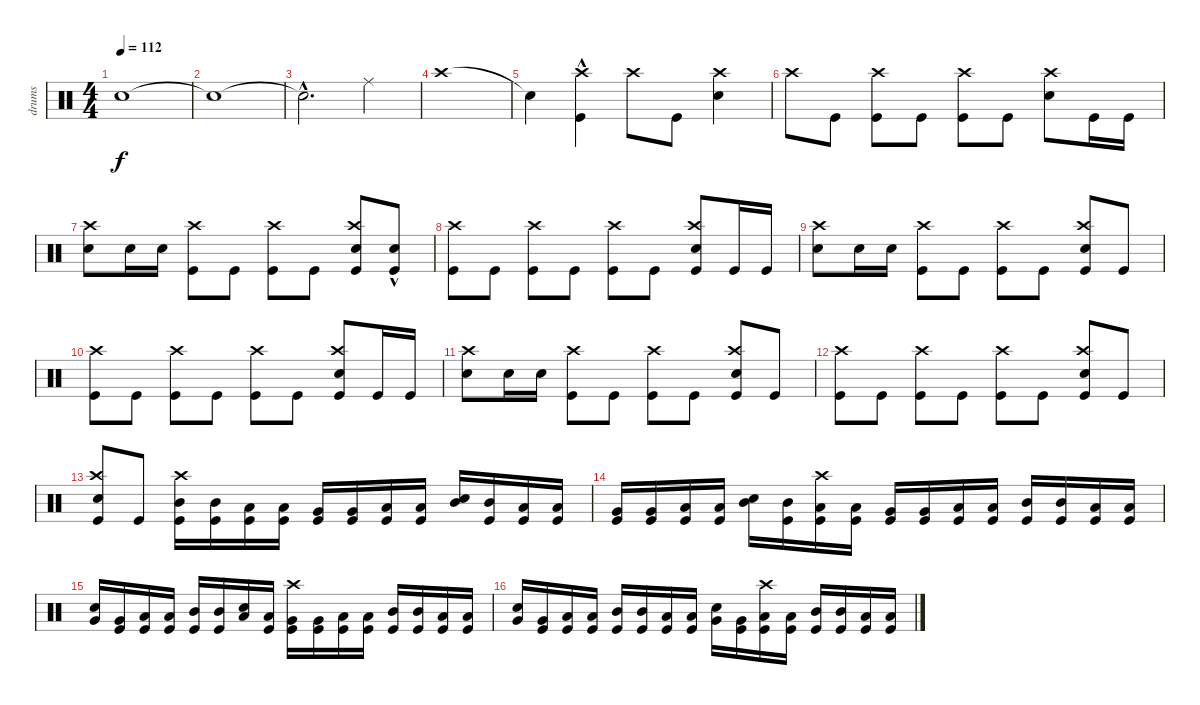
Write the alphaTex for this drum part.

\track ("drums" "drums") {instrument percussion}
\staff {score}
\articulation defaults
\ts (4 4)
\tempo 112
\clef neutral
\ks c "Snare (hit)"{t}.1{dy f}
|
"Snare (hit)"{t}.1 |
"Snare (hit)"{hac t}.2{d} "Ride (middle)".4 |
"Crash high (hit)".1 |
"Snare (hit)"{t}.4 ("Kick (hit)"{hac} "Crash high (hit)").4 "Crash high (hit)".8 "Kick (hit)".8 ("Snare (hit) 2" "Crash high (hit)").4 |
"Crash high (hit)".8 "Kick (hit)".8 ("Kick (hit)" "Crash high (hit)").8 "Kick (hit)".8 ("Kick (hit)" "Crash high (hit)").8 "Kick (hit)".8 ("Snare (hit) 2" "Crash high (hit)").8 "Kick (hit)".16 "Kick (hit)".16 |
("Snare (hit) 2" "Crash high (hit)").8 "Snare (hit) 2".16 "Snare (hit) 2".16 ("Kick (hit)" "Crash high (hit)").8 "Kick (hit)".8 ("Kick (hit)" "Crash high (hit)").8 "Kick (hit)".8 ("Kick (hit)" "Snare (hit) 2" "Crash high (hit)").8 ("Kick (hit)" "Snare (hit) 2"{hac}).8 |
("Kick (hit)" "Crash high (hit)").8 "Kick (hit)".8 ("Kick (hit)" "Crash high (hit)").8 "Kick (hit)".8 ("Kick (hit)" "Crash high (hit)").8 "Kick (hit)".8 ("Kick (hit)" "Snare (hit) 2" "Crash high (hit)").8 "Kick (hit)".16 "Kick (hit)".16 |
("Snare (hit) 2" "Crash high (hit)").8 "Snare (hit) 2".16 "Snare (hit) 2".16 ("Kick (hit)" "Crash high (hit)").8 "Kick (hit)".8 ("Kick (hit)" "Crash high (hit)").8 "Kick (hit)".8 ("Kick (hit)" "Snare (hit) 2" "Crash high (hit)").8 "Kick (hit)".8 |
("Kick (hit)" "Crash high (hit)").8 "Kick (hit)".8 ("Kick (hit)" "Crash high (hit)").8 "Kick (hit)".8 ("Kick (hit)" "Crash high (hit)").8 "Kick (hit)".8 ("Kick (hit)" "Snare (hit) 2" "Crash high (hit)").8 "Kick (hit)".16 "Kick (hit)".16 |
("Snare (hit) 2" "Crash high (hit)").8 "Snare (hit) 2".16 "Snare (hit) 2".16 ("Kick (hit)" "Crash high (hit)").8 "Kick (hit)".8 ("Kick (hit)" "Crash high (hit)").8 "Kick (hit)".8 ("Kick (hit)" "Snare (hit) 2" "Crash high (hit)").8 "Kick (hit)".8 |
("Kick (hit)" "Crash high (hit)").8 "Kick (hit)".8 ("Kick (hit)" "Crash high (hit)").8 "Kick (hit)".8 ("Kick (hit)" "Crash high (hit)").8 "Kick (hit)".8 ("Kick (hit)" "Snare (hit) 2" "Crash high (hit)").8 "Kick (hit)".8 |
("Kick (hit)" "Snare (hit) 2" "Crash high (hit)").8 "Kick (hit)".8 ("Kick (hit)" "Mid Tom (hit)" "Crash high (hit)").16 ("Kick (hit)" "Mid Tom (hit)").16 ("Kick (hit)" "Low Tom (hit)").16 ("Kick (hit)" "Low Tom (hit)").16 ("Kick (hit)" "Very Low Tom (hit)").16 ("Kick (hit)" "Very Low Tom (hit)").16 ("Kick (hit)" "Low Floor Tom (hit)").16 ("Kick (hit)" "Low Floor Tom (hit)").16 ("Snare (hit) 2" "Mid Tom (hit)").16 ("Kick (hit)" "Mid Tom (hit)").16 ("Kick (hit)" "Low Tom (hit)").16 ("Kick (hit)" "Low Tom (hit)").16 |
("Kick (hit)" "Very Low Tom (hit)").16 ("Kick (hit)" "Very Low Tom (hit)").16 ("Kick (hit)" "Low Floor Tom (hit)").16 ("Kick (hit)" "Low Floor Tom (hit)").16 ("Snare (hit) 2" "Mid Tom (hit)").16 ("Kick (hit)" "Mid Tom (hit)").16 ("Kick (hit)" "Low Tom (hit)" "Crash high (hit)").16 ("Kick (hit)" "Low Tom (hit)").16 ("Kick (hit)" "Very Low Tom (hit)").16 ("Kick (hit)" "Very Low Tom (hit)").16 ("Kick (hit)" "Low Floor Tom (hit)").16 ("Kick (hit)" "Low Floor Tom (hit)").16 ("Kick (hit)" "Mid Tom (hit)").16 ("Kick (hit)" "Mid Tom (hit)").16 ("Kick (hit)" "Low Tom (hit)").16 ("Kick (hit)" "Low Tom (hit)").16 |
("Snare (hit) 2" "Very Low Tom (hit)").16 ("Kick (hit)" "Very Low Tom (hit)").16 ("Kick (hit)" "Low Floor Tom (hit)").16 ("Kick (hit)" "Low Floor Tom (hit)").16 ("Kick (hit)" "Mid Tom (hit)").16 ("Kick (hit)" "Mid Tom (hit)").16 ("Snare (hit) 2" "Low Tom (hit)").16 ("Kick (hit)" "Low Tom (hit)").16 ("Kick (hit)" "Very Low Tom (hit)" "Crash high (hit)").16 ("Kick (hit)" "Very Low Tom (hit)").16 ("Kick (hit)" "Low Floor Tom (hit)").16 ("Kick (hit)" "Low Floor Tom (hit)").16 ("Kick (hit)" "Mid Tom (hit)").16 ("Kick (hit)" "Mid Tom (hit)").16 ("Kick (hit)" "Low Tom (hit)").16 ("Kick (hit)" "Low Tom (hit)").16 |
("Snare (hit) 2" "Very Low Tom (hit)").16 ("Kick (hit)" "Very Low Tom (hit)").16 ("Kick (hit)" "Low Floor Tom (hit)").16 ("Kick (hit)" "Low Floor Tom (hit)").16 ("Kick (hit)" "Mid Tom (hit)").16 ("Kick (hit)" "Mid Tom (hit)").16 ("Kick (hit)" "Low Tom (hit)").16 ("Kick (hit)" "Low Tom (hit)").16 ("Snare (hit) 2" "Very Low Tom (hit)").16 ("Kick (hit)" "Very Low Tom (hit)").16 ("Kick (hit)" "Low Floor Tom (hit)" "Crash high (hit)").16 ("Kick (hit)" "Low Floor Tom (hit)").16 ("Kick (hit)" "Mid Tom (hit)").16 ("Kick (hit)" "Mid Tom (hit)").16 ("Kick (hit)" "Low Tom (hit)").16 ("Kick (hit)" "Low Tom (hit)").16
